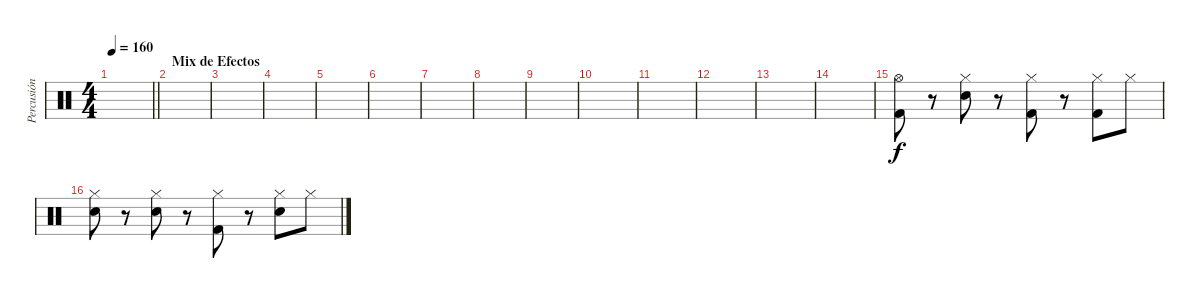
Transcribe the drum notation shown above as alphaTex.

\track ("Percusión" "Percusión") {instrument percussion}
\staff {score}
\articulation defaults
\ts (4 4)
\tempo 160
\clef neutral
\barLineRight lightlight
\ks c
|
\section ("" "Mix de Efectos")
|
|
|
|
|
|
|
|
|
|
|
|
|
("Hi-Hat (open)" "Kick (hit) 2").8 r.8 ("Hi-Hat (closed)" "Snare (hit) 2").8 r.8 ("Hi-Hat (closed)" "Kick (hit) 2").8 r.8 ("Hi-Hat (closed)" "Kick (hit) 2").8 "Hi-Hat (closed)".8 |
("Hi-Hat (closed)" "Snare (hit) 2").8 r.8 ("Hi-Hat (closed)" "Snare (hit) 2").8 r.8 ("Hi-Hat (closed)" "Kick (hit) 2").8 r.8 ("Hi-Hat (closed)" "Snare (hit) 2").8 "Hi-Hat (closed)".8
